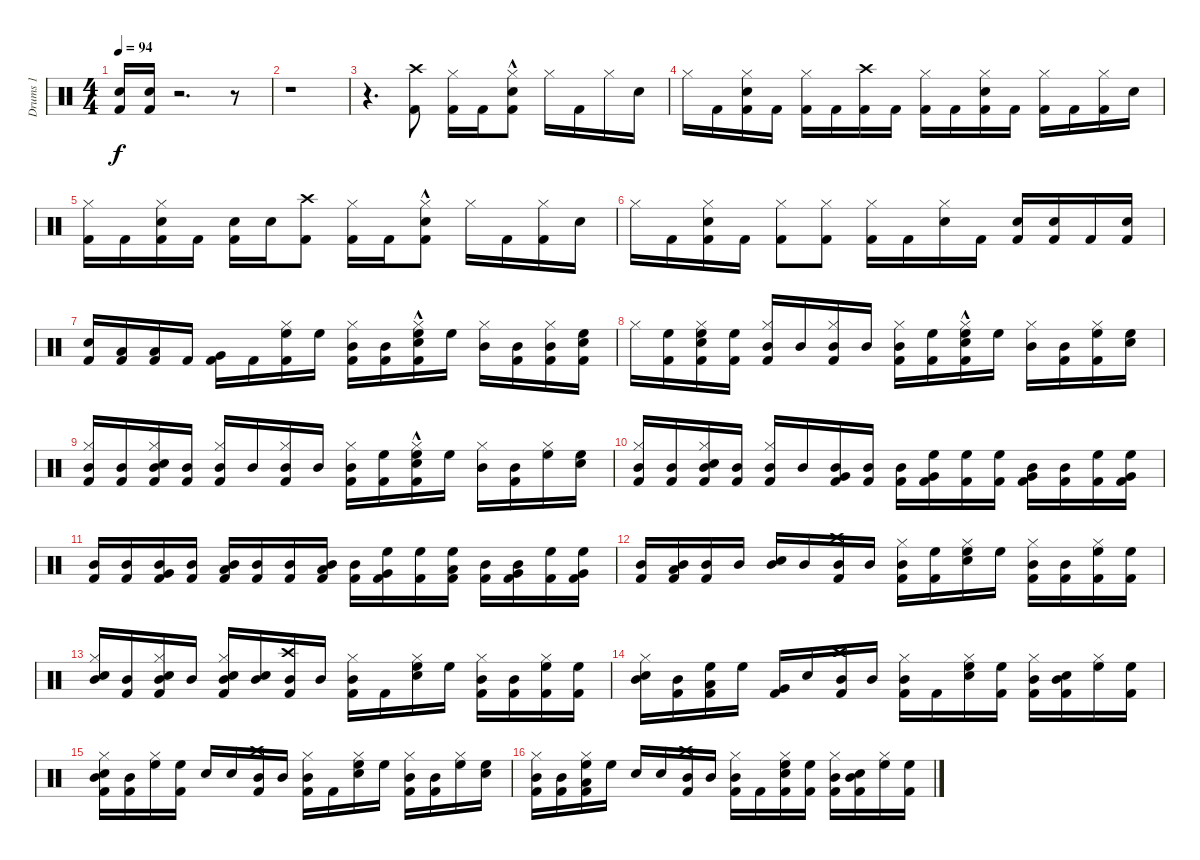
\track ("Drums 1" "Drums 1") {instrument percussion}
\staff {score}
\articulation defaults
\ts (4 4)
\tempo 94
\clef neutral
\ks c
("Kick (hit) 2" "Snare (hit) 2").16{dy f} ("Electric Snare (hit)" "Kick (hit) 2").16 r.2{d} r.8 |
r.1 |
r.4{d} ("Kick (hit) 2" "Crash high (hit)").8 ("Kick (hit) 2" "Hi-Hat (closed)").16 "Kick (hit) 2".16 ("Kick (hit) 2"{hac} "Electric Snare (hit)"{hac} "Hi-Hat (closed)").8 "Hi-Hat (closed)".16 "Kick (hit) 2".16 "Hi-Hat (closed)".16 "Snare (hit) 2".16 |
"Hi-Hat (closed)".16 "Kick (hit) 2".16 ("Kick (hit) 2" "Snare (hit) 2" "Hi-Hat (closed)").16 "Kick (hit) 2".16 ("Kick (hit) 2" "Hi-Hat (closed)").16 "Kick (hit) 2".16 ("Kick (hit) 2" "Crash high (hit)").16 "Kick (hit) 2".16 ("Kick (hit) 2" "Hi-Hat (closed)").16 "Kick (hit) 2".16 ("Kick (hit) 2" "Snare (hit) 2" "Hi-Hat (closed)").16 "Kick (hit) 2".16 ("Kick (hit) 2" "Hi-Hat (closed)").16 "Kick (hit) 2".16 ("Kick (hit) 2" "Hi-Hat (closed)").16 "Electric Snare (hit)".16 |
("Kick (hit) 2" "Hi-Hat (closed)").16 "Kick (hit) 2".16 ("Kick (hit) 2" "Snare (hit) 2" "Hi-Hat (closed)").16 "Kick (hit) 2".16 ("Electric Snare (hit)" "Kick (hit) 2").16 "Electric Snare (hit)".16 ("Kick (hit) 2" "Crash high (hit)").8 ("Kick (hit) 2" "Hi-Hat (closed)").16 "Kick (hit) 2".16 ("Kick (hit) 2"{hac} "Electric Snare (hit)"{hac} "Hi-Hat (closed)").8 "Hi-Hat (closed)".16 "Kick (hit) 2".16 ("Kick (hit) 2" "Hi-Hat (closed)").16 "Snare (hit) 2".16 |
"Hi-Hat (closed)".16 "Kick (hit) 2".16 ("Kick (hit) 2" "Snare (hit) 2" "Hi-Hat (closed)").16 "Kick (hit) 2".16 ("Kick (hit) 2" "Hi-Hat (closed)").8 ("Kick (hit) 2" "Hi-Hat (closed)").8 ("Kick (hit) 2" "Hi-Hat (closed)").16 "Kick (hit) 2".16 ("Snare (hit) 2" "Hi-Hat (closed)").16 "Kick (hit) 2".16 ("Kick (hit) 2" "Electric Snare (hit)").16 ("Kick (hit) 2" "Electric Snare (hit)").16 "Kick (hit) 2".16 ("Kick (hit) 2" "Snare (hit) 2").16 |
("Snare (hit) 2" "Kick (hit) 2").16 ("Kick (hit) 2" "Low Tom (hit)").16 ("Kick (hit) 2" "Low Tom (hit)").16 "Kick (hit) 2".16 ("Very Low Tom (hit)" "Kick (hit) 2").16 "Kick (hit) 2".16 ("High Floor Tom (hit)" "Kick (hit) 2" "Hi-Hat (closed)").16 "High Floor Tom (hit)".16 ("Mid Tom (hit)" "Kick (hit) 2" "Hi-Hat (closed)").16 ("Mid Tom (hit)" "Kick (hit) 2").16 ("High Floor Tom (hit)" "Kick (hit) 2"{hac} "Electric Snare (hit)"{hac} "Hi-Hat (closed)").16 "High Floor Tom (hit)".16 ("Mid Tom (hit)" "Hi-Hat (closed)").16 ("Mid Tom (hit)" "Kick (hit) 2").16 ("Mid Tom (hit)" "Kick (hit) 2" "Hi-Hat (closed)").16 ("High Floor Tom (hit)" "Kick (hit) 2" "Snare (hit) 2").16 |
"Hi-Hat (closed)".16 ("High Floor Tom (hit)" "Kick (hit) 2").16 ("High Floor Tom (hit)" "Kick (hit) 2" "Snare (hit) 2" "Hi-Hat (closed)").16 ("High Floor Tom (hit)" "Kick (hit) 2").16 ("Mid Tom (hit)" "Kick (hit) 2" "Hi-Hat (closed)").16 "Mid Tom (hit)".16 ("Mid Tom (hit)" "Kick (hit) 2" "Hi-Hat (closed)").16 "Mid Tom (hit)".16 ("Mid Tom (hit)" "Kick (hit) 2" "Hi-Hat (closed)").16 ("High Floor Tom (hit)" "Kick (hit) 2").16 ("High Floor Tom (hit)" "Kick (hit) 2"{hac} "Electric Snare (hit)"{hac} "Hi-Hat (closed)").16 "High Floor Tom (hit)".16 ("Mid Tom (hit)" "Hi-Hat (closed)").16 ("Mid Tom (hit)" "Kick (hit) 2").16 ("High Floor Tom (hit)" "Kick (hit) 2" "Hi-Hat (closed)").16 ("High Floor Tom (hit)" "Snare (hit) 2").16 |
("Mid Tom (hit)" "Kick (hit) 2" "Hi-Hat (closed)").16 ("Mid Tom (hit)" "Kick (hit) 2").16 ("Mid Tom (hit)" "Kick (hit) 2" "Snare (hit) 2" "Hi-Hat (closed)").16 ("Mid Tom (hit)" "Kick (hit) 2").16 ("Mid Tom (hit)" "Kick (hit) 2" "Hi-Hat (closed)").16 "Mid Tom (hit)".16 ("Mid Tom (hit)" "Kick (hit) 2" "Hi-Hat (closed)").16 "Mid Tom (hit)".16 ("Mid Tom (hit)" "Kick (hit) 2" "Hi-Hat (closed)").16 ("High Floor Tom (hit)" "Kick (hit) 2").16 ("High Floor Tom (hit)" "Kick (hit) 2"{hac} "Electric Snare (hit)"{hac} "Hi-Hat (closed)").16 "High Floor Tom (hit)".16 ("Mid Tom (hit)" "Hi-Hat (closed)").16 ("Mid Tom (hit)" "Kick (hit) 2").16 ("High Floor Tom (hit)" "Hi-Hat (closed)").16 ("High Floor Tom (hit)" "Snare (hit) 2").16 |
("Mid Tom (hit)" "Kick (hit) 2" "Hi-Hat (closed)").16 ("Mid Tom (hit)" "Kick (hit) 2").16 ("Mid Tom (hit)" "Kick (hit) 2" "Snare (hit) 2" "Hi-Hat (closed)").16 ("Mid Tom (hit)" "Kick (hit) 2").16 ("Mid Tom (hit)" "Kick (hit) 2" "Hi-Hat (closed)").16 "Mid Tom (hit)".16 ("Mid Tom (hit)" "Very Low Tom (hit)" "Kick (hit) 2").16 ("Mid Tom (hit)" "Kick (hit) 2").16 ("Mid Tom (hit)" "Kick (hit) 2").16 ("High Floor Tom (hit)" "Very Low Tom (hit)" "Kick (hit) 2").16 ("High Floor Tom (hit)" "Kick (hit) 2").16 ("High Floor Tom (hit)" "Kick (hit) 2").16 ("Mid Tom (hit)" "Very Low Tom (hit)" "Kick (hit) 2").16 ("Mid Tom (hit)" "Kick (hit) 2").16 ("High Floor Tom (hit)" "Kick (hit) 2").16 ("High Floor Tom (hit)" "Very Low Tom (hit)" "Kick (hit) 2").16 |
("Mid Tom (hit)" "Kick (hit) 2").16 ("Mid Tom (hit)" "Kick (hit) 2").16 ("Mid Tom (hit)" "Very Low Tom (hit)" "Kick (hit) 2").16 ("Mid Tom (hit)" "Kick (hit) 2").16 ("Mid Tom (hit)" "Low Floor Tom (hit)" "Kick (hit) 2").16 ("Mid Tom (hit)" "Kick (hit) 2").16 ("Mid Tom (hit)" "Kick (hit) 2").16 ("Mid Tom (hit)" "Low Tom (hit)" "Kick (hit) 2").16 ("Mid Tom (hit)" "Kick (hit) 2").16 ("High Floor Tom (hit)" "Very Low Tom (hit)" "Kick (hit) 2").16 ("High Floor Tom (hit)" "Kick (hit) 2").16 ("High Floor Tom (hit)" "Low Tom (hit)" "Kick (hit) 2").16 ("Mid Tom (hit)" "Kick (hit) 2").16 ("Mid Tom (hit)" "Very Low Tom (hit)" "Kick (hit) 2").16 ("High Floor Tom (hit)" "Kick (hit) 2").16 ("High Floor Tom (hit)" "Very Low Tom (hit)" "Kick (hit) 2").16 |
("Mid Tom (hit)" "Kick (hit) 2").16 ("Mid Tom (hit)" "Low Floor Tom (hit)" "Kick (hit) 2").16 ("Mid Tom (hit)" "Kick (hit) 2").16 "Mid Tom (hit)".16 ("Mid Tom (hit)" "Electric Snare (hit)").16 "Mid Tom (hit)".16 ("Mid Tom (hit)" "Kick (hit) 2" "Crash high (hit)").16 "Mid Tom (hit)".16 ("Mid Tom (hit)" "Kick (hit) 2" "Hi-Hat (closed)").16 ("High Floor Tom (hit)" "Kick (hit) 2").16 ("High Floor Tom (hit)" "Snare (hit) 2" "Hi-Hat (closed)").16 "High Floor Tom (hit)".16 ("Mid Tom (hit)" "Kick (hit) 2" "Hi-Hat (closed)").16 ("Mid Tom (hit)" "Kick (hit) 2").16 ("High Floor Tom (hit)" "Kick (hit) 2" "Hi-Hat (closed)").16 ("High Floor Tom (hit)" "Kick (hit) 2").16 |
("Mid Tom (hit)" "Electric Snare (hit)" "Hi-Hat (closed)").16 ("Mid Tom (hit)" "Kick (hit) 2").16 ("Mid Tom (hit)" "Kick (hit) 2" "Electric Snare (hit)" "Hi-Hat (closed)").16 "Mid Tom (hit)".16 ("Mid Tom (hit)" "Electric Snare (hit)" "Kick (hit) 2" "Hi-Hat (closed)").16 ("Mid Tom (hit)" "Snare (hit) 2").16 ("Mid Tom (hit)" "Kick (hit) 2" "Crash high (hit)").16 "Mid Tom (hit)".16 ("Mid Tom (hit)" "Kick (hit) 2" "Hi-Hat (closed)").16 "Kick (hit) 2".16 ("High Floor Tom (hit)" "Snare (hit) 2" "Hi-Hat (closed)").16 "High Floor Tom (hit)".16 ("Mid Tom (hit)" "Kick (hit) 2" "Hi-Hat (closed)").16 ("Mid Tom (hit)" "Kick (hit) 2").16 ("High Floor Tom (hit)" "Kick (hit) 2" "Hi-Hat (closed)").16 ("High Floor Tom (hit)" "Kick (hit) 2").16 |
("Mid Tom (hit)" "Electric Snare (hit)" "Hi-Hat (closed)").16 ("Mid Tom (hit)" "Kick (hit) 2").16 ("High Floor Tom (hit)" "Kick (hit) 2" "Low Tom (hit)").16 "High Floor Tom (hit)".16 ("Very Low Tom (hit)" "Kick (hit) 2").16 "Snare (hit) 2".16 ("Mid Tom (hit)" "Kick (hit) 2" "Crash high (hit)").16 "Mid Tom (hit)".16 ("Mid Tom (hit)" "Kick (hit) 2" "Hi-Hat (closed)").16 "Kick (hit) 2".16 ("High Floor Tom (hit)" "Snare (hit) 2" "Hi-Hat (closed)").16 ("High Floor Tom (hit)" "Kick (hit) 2").16 ("Mid Tom (hit)" "Kick (hit) 2" "Hi-Hat (closed)").16 ("Mid Tom (hit)" "Electric Snare (hit)" "Kick (hit) 2").16 ("High Floor Tom (hit)" "Hi-Hat (closed)").16 ("High Floor Tom (hit)" "Kick (hit) 2").16 |
("Mid Tom (hit)" "Kick (hit) 2" "Electric Snare (hit)" "Hi-Hat (closed)").16 ("Mid Tom (hit)" "Kick (hit) 2").16 ("High Floor Tom (hit)" "Hi-Hat (closed)").16 ("High Floor Tom (hit)" "Kick (hit) 2").16 "Electric Snare (hit)".16 "Snare (hit) 2".16 ("Mid Tom (hit)" "Kick (hit) 2" "Crash high (hit)").16 "Mid Tom (hit)".16 ("Mid Tom (hit)" "Kick (hit) 2" "Hi-Hat (closed)").16 "Kick (hit) 2".16 ("High Floor Tom (hit)" "Snare (hit) 2" "Hi-Hat (closed)").16 "High Floor Tom (hit)".16 ("Mid Tom (hit)" "Kick (hit) 2" "Hi-Hat (closed)").16 ("Mid Tom (hit)" "Kick (hit) 2").16 ("High Floor Tom (hit)" "Hi-Hat (closed)").16 ("High Floor Tom (hit)" "Electric Snare (hit)").16 |
("Mid Tom (hit)" "Kick (hit) 2" "Hi-Hat (closed)").16 ("Mid Tom (hit)" "Kick (hit) 2").16 ("High Floor Tom (hit)" "Hi-Hat (closed)" "Kick (hit) 2" "Low Tom (hit)").16 "High Floor Tom (hit)".16 "Electric Snare (hit)".16 "Snare (hit) 2".16 ("Mid Tom (hit)" "Kick (hit) 2" "Crash high (hit)").16 "Mid Tom (hit)".16 ("Mid Tom (hit)" "Kick (hit) 2" "Hi-Hat (closed)").16 "Kick (hit) 2".16 ("High Floor Tom (hit)" "Kick (hit) 2" "Snare (hit) 2" "Hi-Hat (closed)").16 ("High Floor Tom (hit)" "Kick (hit) 2").16 ("Mid Tom (hit)" "Kick (hit) 2" "Hi-Hat (closed)").16 ("Mid Tom (hit)" "Electric Snare (hit)" "Kick (hit) 2").16 ("High Floor Tom (hit)" "Hi-Hat (closed)").16 ("High Floor Tom (hit)" "Kick (hit) 2").16
